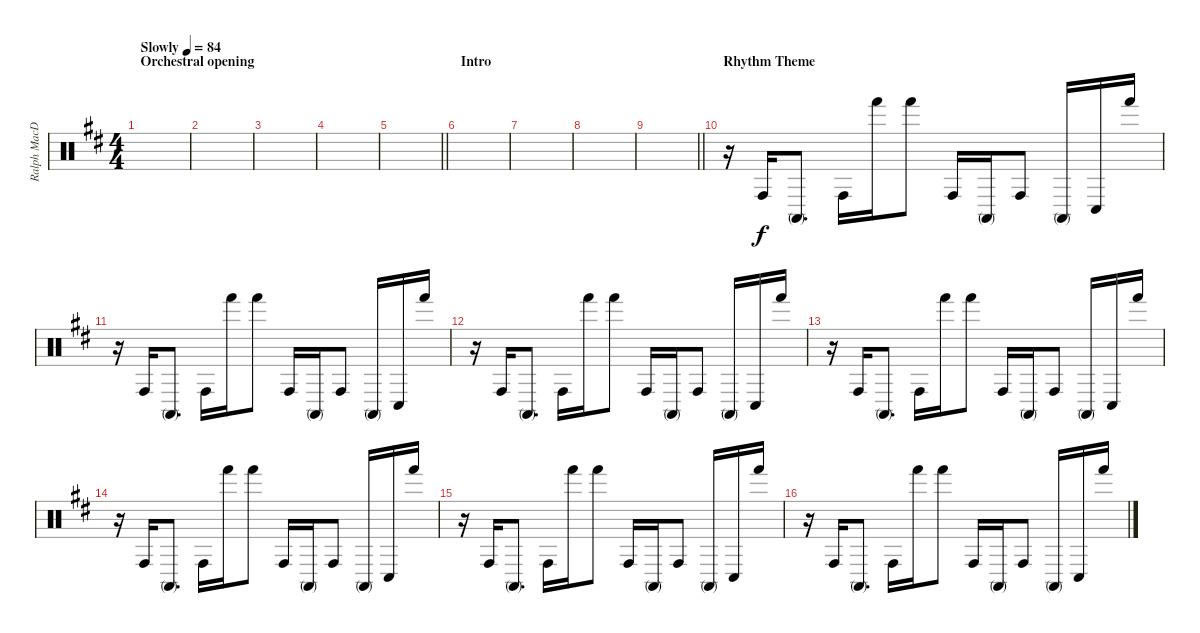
\track ("Ralph MacDonald" "Ralph MacD") {instrument percussion}
\staff {score}
\articulation defaults
\ts (4 4)
\section ("" "Orchestral opening")
\tempo (84 "Slowly")
\clef neutral
\ks d
|
|
|
|
\barLineRight lightlight
|
\section ("" "Intro")
|
|
|
\barLineRight lightlight
|
\section ("" "Rhythm Theme")
r.16 "Conga high (hit)".16 "Conga high (mute)".8{d} "Conga high (hit)".16 "Hand (hit)".16 "Hand (hit)".8 "Conga high (hit)".16 "Conga high (mute)".16 "Conga high (hit)".8 "Conga high (mute)".16 "Conga low (hit)".16 "Hand (hit)".16 |
r.16 "Conga high (hit)".16 "Conga high (mute)".8{d} "Conga high (hit)".16 "Hand (hit)".16 "Hand (hit)".8 "Conga high (hit)".16 "Conga high (mute)".16 "Conga high (hit)".8 "Conga high (mute)".16 "Conga low (hit)".16 "Hand (hit)".16 |
r.16 "Conga high (hit)".16 "Conga high (mute)".8{d} "Conga high (hit)".16 "Hand (hit)".16 "Hand (hit)".8 "Conga high (hit)".16 "Conga high (mute)".16 "Conga high (hit)".8 "Conga high (mute)".16 "Conga low (hit)".16 "Hand (hit)".16 |
r.16 "Conga high (hit)".16 "Conga high (mute)".8{d} "Conga high (hit)".16 "Hand (hit)".16 "Hand (hit)".8 "Conga high (hit)".16 "Conga high (mute)".16 "Conga high (hit)".8 "Conga high (mute)".16 "Conga low (hit)".16 "Hand (hit)".16 |
r.16 "Conga high (hit)".16 "Conga high (mute)".8{d} "Conga high (hit)".16 "Hand (hit)".16 "Hand (hit)".8 "Conga high (hit)".16 "Conga high (mute)".16 "Conga high (hit)".8 "Conga high (mute)".16 "Conga low (hit)".16 "Hand (hit)".16 |
r.16 "Conga high (hit)".16 "Conga high (mute)".8{d} "Conga high (hit)".16 "Hand (hit)".16 "Hand (hit)".8 "Conga high (hit)".16 "Conga high (mute)".16 "Conga high (hit)".8 "Conga high (mute)".16 "Conga low (hit)".16 "Hand (hit)".16 |
r.16 "Conga high (hit)".16 "Conga high (mute)".8{d} "Conga high (hit)".16 "Hand (hit)".16 "Hand (hit)".8 "Conga high (hit)".16 "Conga high (mute)".16 "Conga high (hit)".8 "Conga high (mute)".16 "Conga low (hit)".16 "Hand (hit)".16
